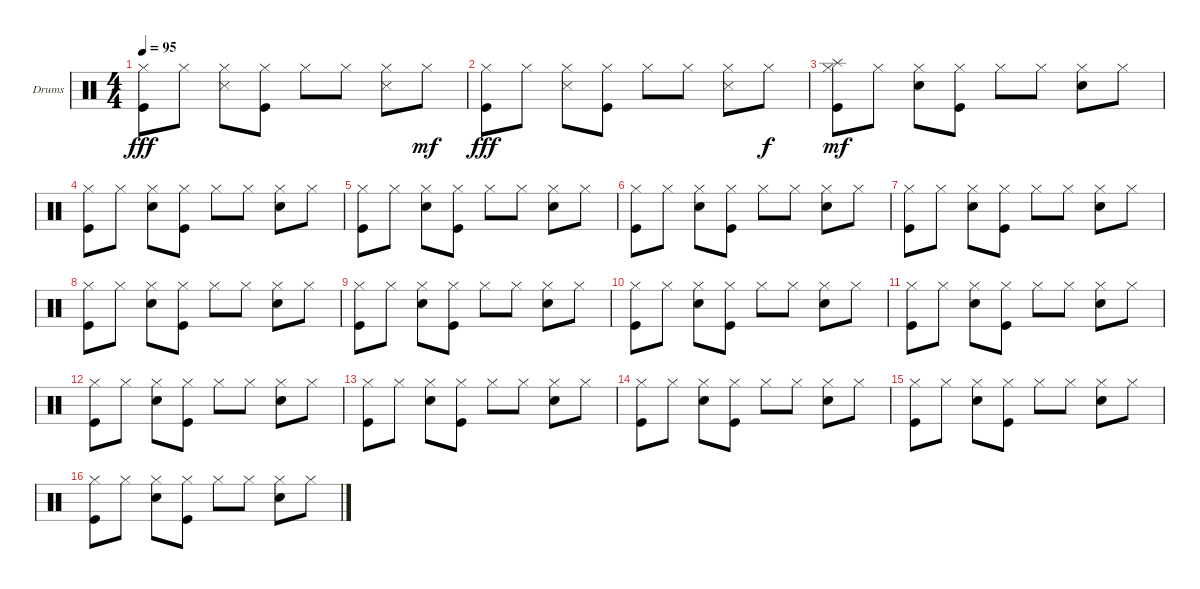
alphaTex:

\bracketExtendMode groupsimilarinstruments
\firstSystemTrackNameOrientation horizontal
\otherSystemsTrackNameOrientation horizontal
\track ("Drumkit" "Drums") {instrument percussion}
\staff {score}
\articulation defaults
\ts (4 4)
\tempo 95
\clef neutral
\ks c
("Kick (hit)" "Hi-Hat (closed)").8{dy fff} "Hi-Hat (closed)".8 ("Snare (side stick) 3" "Hi-Hat (closed)").8 ("Kick (hit)" "Hi-Hat (closed)").8 "Hi-Hat (closed)".8 "Hi-Hat (closed)".8 ("Snare (side stick) 3" "Hi-Hat (closed)").8 "Hi-Hat (closed)".8{dy mf} |
("Kick (hit)" "Hi-Hat (closed)").8{dy fff} "Hi-Hat (closed)".8 ("Snare (side stick) 3" "Hi-Hat (closed)").8 ("Kick (hit)" "Hi-Hat (closed)").8 "Hi-Hat (closed)".8 "Hi-Hat (closed)".8 ("Snare (side stick) 3" "Hi-Hat (closed)").8 "Hi-Hat (closed)".8{dy f} |
("Hi-Hat (closed)" "Kick (hit)" "Splash (hit)").8{dy mf} "Hi-Hat (closed)".8 ("Hi-Hat (closed)" "Snare (hit) 2").8 ("Hi-Hat (closed)" "Kick (hit)").8 "Hi-Hat (closed)".8 "Hi-Hat (closed)".8 ("Hi-Hat (closed)" "Snare (hit) 2").8 "Hi-Hat (closed)".8 |
("Hi-Hat (closed)" "Kick (hit)").8 "Hi-Hat (closed)".8 ("Hi-Hat (closed)" "Snare (hit) 2").8 ("Hi-Hat (closed)" "Kick (hit)").8 "Hi-Hat (closed)".8 "Hi-Hat (closed)".8 ("Hi-Hat (closed)" "Snare (hit) 2").8 "Hi-Hat (closed)".8 |
("Hi-Hat (closed)" "Kick (hit)").8 "Hi-Hat (closed)".8 ("Hi-Hat (closed)" "Snare (hit) 2").8 ("Hi-Hat (closed)" "Kick (hit)").8 "Hi-Hat (closed)".8 "Hi-Hat (closed)".8 ("Hi-Hat (closed)" "Snare (hit) 2").8 "Hi-Hat (closed)".8 |
("Hi-Hat (closed)" "Kick (hit)").8 "Hi-Hat (closed)".8 ("Hi-Hat (closed)" "Snare (hit) 2").8 ("Hi-Hat (closed)" "Kick (hit)").8 "Hi-Hat (closed)".8 "Hi-Hat (closed)".8 ("Hi-Hat (closed)" "Snare (hit) 2").8 "Hi-Hat (closed)".8 |
("Hi-Hat (closed)" "Kick (hit)").8 "Hi-Hat (closed)".8 ("Hi-Hat (closed)" "Snare (hit) 2").8 ("Hi-Hat (closed)" "Kick (hit)").8 "Hi-Hat (closed)".8 "Hi-Hat (closed)".8 ("Hi-Hat (closed)" "Snare (hit) 2").8 "Hi-Hat (closed)".8 |
("Hi-Hat (closed)" "Kick (hit)").8 "Hi-Hat (closed)".8 ("Hi-Hat (closed)" "Snare (hit) 2").8 ("Hi-Hat (closed)" "Kick (hit)").8 "Hi-Hat (closed)".8 "Hi-Hat (closed)".8 ("Hi-Hat (closed)" "Snare (hit) 2").8 "Hi-Hat (closed)".8 |
("Hi-Hat (closed)" "Kick (hit)").8 "Hi-Hat (closed)".8 ("Hi-Hat (closed)" "Snare (hit) 2").8 ("Hi-Hat (closed)" "Kick (hit)").8 "Hi-Hat (closed)".8 "Hi-Hat (closed)".8 ("Hi-Hat (closed)" "Snare (hit) 2").8 "Hi-Hat (closed)".8 |
("Hi-Hat (closed)" "Kick (hit)").8 "Hi-Hat (closed)".8 ("Hi-Hat (closed)" "Snare (hit) 2").8 ("Hi-Hat (closed)" "Kick (hit)").8 "Hi-Hat (closed)".8 "Hi-Hat (closed)".8 ("Hi-Hat (closed)" "Snare (hit) 2").8 "Hi-Hat (closed)".8 |
("Hi-Hat (closed)" "Kick (hit)").8 "Hi-Hat (closed)".8 ("Hi-Hat (closed)" "Snare (hit) 2").8 ("Hi-Hat (closed)" "Kick (hit)").8 "Hi-Hat (closed)".8 "Hi-Hat (closed)".8 ("Hi-Hat (closed)" "Snare (hit) 2").8 "Hi-Hat (closed)".8 |
("Hi-Hat (closed)" "Kick (hit)").8 "Hi-Hat (closed)".8 ("Hi-Hat (closed)" "Snare (hit) 2").8 ("Hi-Hat (closed)" "Kick (hit)").8 "Hi-Hat (closed)".8 "Hi-Hat (closed)".8 ("Hi-Hat (closed)" "Snare (hit) 2").8 "Hi-Hat (closed)".8 |
("Hi-Hat (closed)" "Kick (hit)").8 "Hi-Hat (closed)".8 ("Hi-Hat (closed)" "Snare (hit) 2").8 ("Hi-Hat (closed)" "Kick (hit)").8 "Hi-Hat (closed)".8 "Hi-Hat (closed)".8 ("Hi-Hat (closed)" "Snare (hit) 2").8 "Hi-Hat (closed)".8 |
("Hi-Hat (closed)" "Kick (hit)").8 "Hi-Hat (closed)".8 ("Hi-Hat (closed)" "Snare (hit) 2").8 ("Hi-Hat (closed)" "Kick (hit)").8 "Hi-Hat (closed)".8 "Hi-Hat (closed)".8 ("Hi-Hat (closed)" "Snare (hit) 2").8 "Hi-Hat (closed)".8 |
("Hi-Hat (closed)" "Kick (hit)").8 "Hi-Hat (closed)".8 ("Hi-Hat (closed)" "Snare (hit) 2").8 ("Hi-Hat (closed)" "Kick (hit)").8 "Hi-Hat (closed)".8 "Hi-Hat (closed)".8 ("Hi-Hat (closed)" "Snare (hit) 2").8 "Hi-Hat (closed)".8 |
("Hi-Hat (closed)" "Kick (hit)").8 "Hi-Hat (closed)".8 ("Hi-Hat (closed)" "Snare (hit) 2").8 ("Hi-Hat (closed)" "Kick (hit)").8 "Hi-Hat (closed)".8 "Hi-Hat (closed)".8 ("Hi-Hat (closed)" "Snare (hit) 2").8 "Hi-Hat (closed)".8
